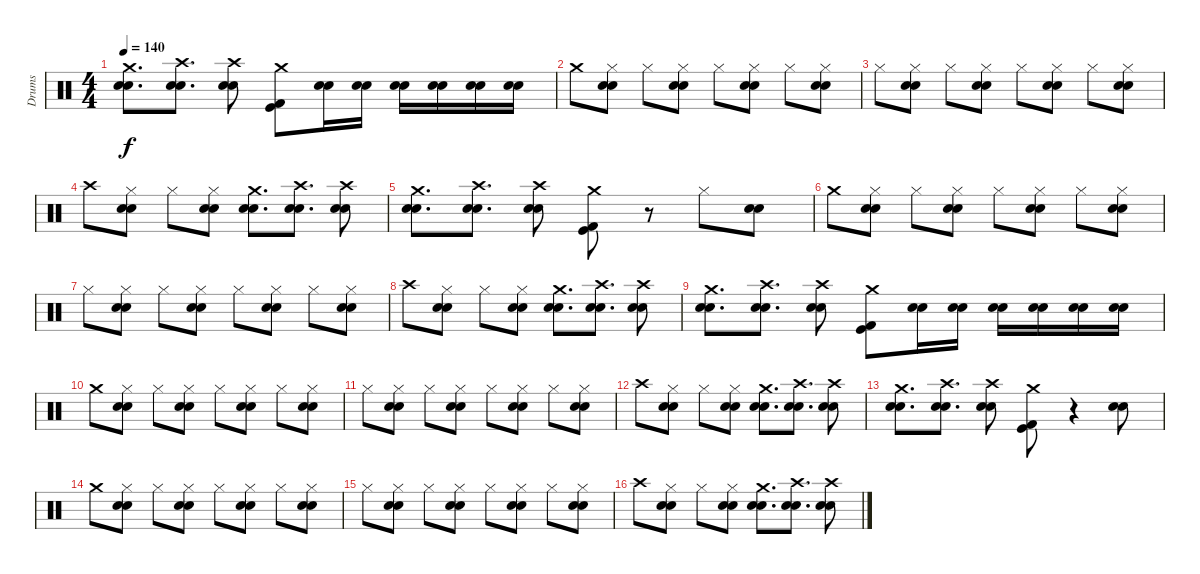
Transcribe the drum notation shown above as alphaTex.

\track ("Drums" "Drums") {instrument percussion}
\staff {score}
\articulation defaults
\ts (4 4)
\tempo 140
\clef neutral
\ks c
("Crash medium (hit)" "Electric Snare (hit)" "Snare (hit) 2").8{d dy f} ("Crash high (hit)" "Electric Snare (hit)" "Snare (hit) 2").8{d} ("Crash high (hit)" "Electric Snare (hit)" "Snare (hit) 2").8 ("Kick (hit) 2" "Kick (hit)" "Crash medium (hit)").8 ("Electric Snare (hit)" "Snare (hit) 2").16 ("Electric Snare (hit)" "Snare (hit) 2").16 ("Electric Snare (hit)" "Snare (hit) 2").16 ("Electric Snare (hit)" "Snare (hit) 2").16 ("Electric Snare (hit)" "Snare (hit) 2").16 ("Electric Snare (hit)" "Snare (hit) 2").16 |
"Crash medium (hit)".8 ("Hi-Hat (closed)" "Electric Snare (hit)" "Snare (hit) 2").8 "Hi-Hat (closed)".8 ("Hi-Hat (closed)" "Electric Snare (hit)" "Snare (hit) 2").8 "Hi-Hat (closed)".8 ("Hi-Hat (closed)" "Electric Snare (hit)" "Snare (hit) 2").8 "Hi-Hat (closed)".8 ("Hi-Hat (closed)" "Electric Snare (hit)" "Snare (hit) 2").8 |
"Hi-Hat (closed)".8 ("Hi-Hat (closed)" "Electric Snare (hit)" "Snare (hit) 2").8 "Hi-Hat (closed)".8 ("Hi-Hat (closed)" "Electric Snare (hit)" "Snare (hit) 2").8 "Hi-Hat (closed)".8 ("Hi-Hat (closed)" "Electric Snare (hit)" "Snare (hit) 2").8 "Hi-Hat (closed)".8 ("Hi-Hat (closed)" "Electric Snare (hit)" "Snare (hit) 2").8 |
"Crash high (hit)".8 ("Hi-Hat (closed)" "Electric Snare (hit)" "Snare (hit) 2").8 "Hi-Hat (closed)".8 ("Hi-Hat (closed)" "Electric Snare (hit)" "Snare (hit) 2").8 ("Crash medium (hit)" "Electric Snare (hit)" "Snare (hit) 2").8{d} ("Crash high (hit)" "Electric Snare (hit)" "Snare (hit) 2").8{d} ("Crash high (hit)" "Electric Snare (hit)" "Snare (hit) 2").8 |
("Crash medium (hit)" "Electric Snare (hit)" "Snare (hit) 2").8{d} ("Crash high (hit)" "Electric Snare (hit)" "Snare (hit) 2").8{d} ("Crash high (hit)" "Electric Snare (hit)" "Snare (hit) 2").8 ("Kick (hit) 2" "Kick (hit)" "Crash medium (hit)").8 r.8 "Hi-Hat (closed)".8 ("Electric Snare (hit)" "Snare (hit) 2").8 |
"Crash medium (hit)".8 ("Hi-Hat (closed)" "Electric Snare (hit)" "Snare (hit) 2").8 "Hi-Hat (closed)".8 ("Hi-Hat (closed)" "Electric Snare (hit)" "Snare (hit) 2").8 "Hi-Hat (closed)".8 ("Hi-Hat (closed)" "Electric Snare (hit)" "Snare (hit) 2").8 "Hi-Hat (closed)".8 ("Hi-Hat (closed)" "Electric Snare (hit)" "Snare (hit) 2").8 |
"Hi-Hat (closed)".8 ("Hi-Hat (closed)" "Electric Snare (hit)" "Snare (hit) 2").8 "Hi-Hat (closed)".8 ("Hi-Hat (closed)" "Electric Snare (hit)" "Snare (hit) 2").8 "Hi-Hat (closed)".8 ("Hi-Hat (closed)" "Electric Snare (hit)" "Snare (hit) 2").8 "Hi-Hat (closed)".8 ("Hi-Hat (closed)" "Electric Snare (hit)" "Snare (hit) 2").8 |
"Crash high (hit)".8 ("Hi-Hat (closed)" "Electric Snare (hit)" "Snare (hit) 2").8 "Hi-Hat (closed)".8 ("Hi-Hat (closed)" "Electric Snare (hit)" "Snare (hit) 2").8 ("Crash medium (hit)" "Electric Snare (hit)" "Snare (hit) 2").8{d} ("Crash high (hit)" "Electric Snare (hit)" "Snare (hit) 2").8{d} ("Crash high (hit)" "Electric Snare (hit)" "Snare (hit) 2").8 |
("Crash medium (hit)" "Electric Snare (hit)" "Snare (hit) 2").8{d} ("Crash high (hit)" "Electric Snare (hit)" "Snare (hit) 2").8{d} ("Crash high (hit)" "Electric Snare (hit)" "Snare (hit) 2").8 ("Kick (hit) 2" "Kick (hit)" "Crash medium (hit)").8 ("Electric Snare (hit)" "Snare (hit) 2").16 ("Electric Snare (hit)" "Snare (hit) 2").16 ("Electric Snare (hit)" "Snare (hit) 2").16 ("Electric Snare (hit)" "Snare (hit) 2").16 ("Electric Snare (hit)" "Snare (hit) 2").16 ("Electric Snare (hit)" "Snare (hit) 2").16 |
"Crash medium (hit)".8 ("Hi-Hat (closed)" "Electric Snare (hit)" "Snare (hit) 2").8 "Hi-Hat (closed)".8 ("Hi-Hat (closed)" "Electric Snare (hit)" "Snare (hit) 2").8 "Hi-Hat (closed)".8 ("Hi-Hat (closed)" "Electric Snare (hit)" "Snare (hit) 2").8 "Hi-Hat (closed)".8 ("Hi-Hat (closed)" "Electric Snare (hit)" "Snare (hit) 2").8 |
"Hi-Hat (closed)".8 ("Hi-Hat (closed)" "Electric Snare (hit)" "Snare (hit) 2").8 "Hi-Hat (closed)".8 ("Hi-Hat (closed)" "Electric Snare (hit)" "Snare (hit) 2").8 "Hi-Hat (closed)".8 ("Hi-Hat (closed)" "Electric Snare (hit)" "Snare (hit) 2").8 "Hi-Hat (closed)".8 ("Hi-Hat (closed)" "Electric Snare (hit)" "Snare (hit) 2").8 |
"Crash high (hit)".8 ("Hi-Hat (closed)" "Electric Snare (hit)" "Snare (hit) 2").8 "Hi-Hat (closed)".8 ("Hi-Hat (closed)" "Electric Snare (hit)" "Snare (hit) 2").8 ("Crash medium (hit)" "Electric Snare (hit)" "Snare (hit) 2").8{d} ("Crash high (hit)" "Electric Snare (hit)" "Snare (hit) 2").8{d} ("Crash high (hit)" "Electric Snare (hit)" "Snare (hit) 2").8 |
("Crash medium (hit)" "Electric Snare (hit)" "Snare (hit) 2").8{d} ("Crash high (hit)" "Electric Snare (hit)" "Snare (hit) 2").8{d} ("Crash high (hit)" "Electric Snare (hit)" "Snare (hit) 2").8 ("Kick (hit) 2" "Kick (hit)" "Crash medium (hit)").8 r.4 ("Electric Snare (hit)" "Snare (hit) 2").8 |
"Crash medium (hit)".8 ("Hi-Hat (closed)" "Electric Snare (hit)" "Snare (hit) 2").8 "Hi-Hat (closed)".8 ("Hi-Hat (closed)" "Electric Snare (hit)" "Snare (hit) 2").8 "Hi-Hat (closed)".8 ("Hi-Hat (closed)" "Electric Snare (hit)" "Snare (hit) 2").8 "Hi-Hat (closed)".8 ("Hi-Hat (closed)" "Electric Snare (hit)" "Snare (hit) 2").8 |
"Hi-Hat (closed)".8 ("Hi-Hat (closed)" "Electric Snare (hit)" "Snare (hit) 2").8 "Hi-Hat (closed)".8 ("Hi-Hat (closed)" "Electric Snare (hit)" "Snare (hit) 2").8 "Hi-Hat (closed)".8 ("Hi-Hat (closed)" "Electric Snare (hit)" "Snare (hit) 2").8 "Hi-Hat (closed)".8 ("Hi-Hat (closed)" "Electric Snare (hit)" "Snare (hit) 2").8 |
"Crash high (hit)".8 ("Hi-Hat (closed)" "Electric Snare (hit)" "Snare (hit) 2").8 "Hi-Hat (closed)".8 ("Hi-Hat (closed)" "Electric Snare (hit)" "Snare (hit) 2").8 ("Crash medium (hit)" "Electric Snare (hit)" "Snare (hit) 2").8{d} ("Crash high (hit)" "Electric Snare (hit)" "Snare (hit) 2").8{d} ("Crash high (hit)" "Electric Snare (hit)" "Snare (hit) 2").8
